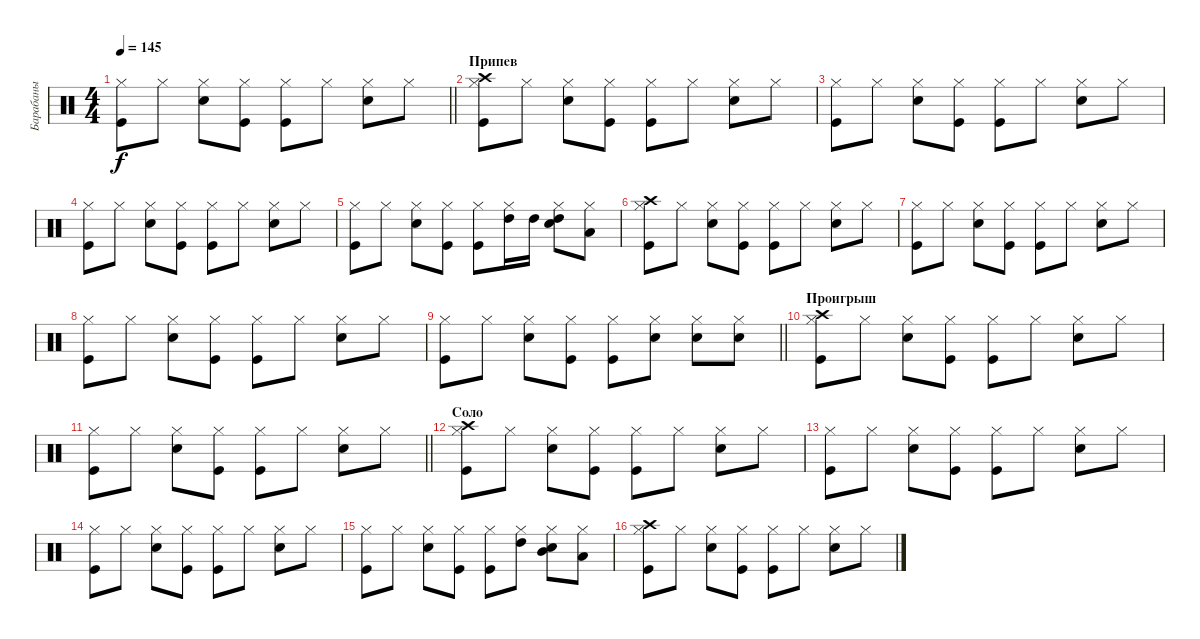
\track ("Барабаны" "Барабаны") {instrument percussion}
\staff {score}
\articulation defaults
\ts (4 4)
\tempo 145
\clef neutral
\barLineRight lightlight
\ks c
("Kick (hit)" "Hi-Hat (closed)").8{dy f} "Hi-Hat (closed)".8 ("Snare (hit) 2" "Hi-Hat (closed)").8 ("Kick (hit)" "Hi-Hat (closed)").8 ("Kick (hit)" "Hi-Hat (closed)").8 "Hi-Hat (closed)".8 ("Snare (hit) 2" "Hi-Hat (closed)").8 "Hi-Hat (closed)".8 |
\section ("" "Припев")
("Kick (hit)" "Hi-Hat (closed)" "Crash high (hit)").8 "Hi-Hat (closed)".8 ("Snare (hit) 2" "Hi-Hat (closed)").8 ("Kick (hit)" "Hi-Hat (closed)").8 ("Kick (hit)" "Hi-Hat (closed)").8 "Hi-Hat (closed)".8 ("Snare (hit) 2" "Hi-Hat (closed)").8 "Hi-Hat (closed)".8 |
("Kick (hit)" "Hi-Hat (closed)").8 "Hi-Hat (closed)".8 ("Snare (hit) 2" "Hi-Hat (closed)").8 ("Kick (hit)" "Hi-Hat (closed)").8 ("Kick (hit)" "Hi-Hat (closed)").8 "Hi-Hat (closed)".8 ("Snare (hit) 2" "Hi-Hat (closed)").8 "Hi-Hat (closed)".8 |
("Kick (hit)" "Hi-Hat (closed)").8 "Hi-Hat (closed)".8 ("Snare (hit) 2" "Hi-Hat (closed)").8 ("Kick (hit)" "Hi-Hat (closed)").8 ("Kick (hit)" "Hi-Hat (closed)").8 "Hi-Hat (closed)".8 ("Snare (hit) 2" "Hi-Hat (closed)").8 "Hi-Hat (closed)".8 |
("Kick (hit)" "Hi-Hat (closed)").8 "Hi-Hat (closed)".8 ("Snare (hit) 2" "Hi-Hat (closed)").8 ("Kick (hit)" "Hi-Hat (closed)").8 ("Kick (hit)" "Hi-Hat (closed)").8 ("Hi-Hat (closed)" "High Tom (hit)").16 "High Tom (hit)".16 ("Snare (hit) 2" "Hi-Hat (closed)" "High Tom (hit)").8 ("Hi-Hat (closed)" "Low Floor Tom (hit)").8 |
("Kick (hit)" "Hi-Hat (closed)" "Crash high (hit)").8 "Hi-Hat (closed)".8 ("Snare (hit) 2" "Hi-Hat (closed)").8 ("Kick (hit)" "Hi-Hat (closed)").8 ("Kick (hit)" "Hi-Hat (closed)").8 "Hi-Hat (closed)".8 ("Snare (hit) 2" "Hi-Hat (closed)").8 "Hi-Hat (closed)".8 |
("Kick (hit)" "Hi-Hat (closed)").8 "Hi-Hat (closed)".8 ("Snare (hit) 2" "Hi-Hat (closed)").8 ("Kick (hit)" "Hi-Hat (closed)").8 ("Kick (hit)" "Hi-Hat (closed)").8 "Hi-Hat (closed)".8 ("Snare (hit) 2" "Hi-Hat (closed)").8 "Hi-Hat (closed)".8 |
("Kick (hit)" "Hi-Hat (closed)").8 "Hi-Hat (closed)".8 ("Snare (hit) 2" "Hi-Hat (closed)").8 ("Kick (hit)" "Hi-Hat (closed)").8 ("Kick (hit)" "Hi-Hat (closed)").8 "Hi-Hat (closed)".8 ("Snare (hit) 2" "Hi-Hat (closed)").8 "Hi-Hat (closed)".8 |
\barLineRight lightlight
("Kick (hit)" "Hi-Hat (closed)").8 "Hi-Hat (closed)".8 ("Snare (hit) 2" "Hi-Hat (closed)").8 ("Kick (hit)" "Hi-Hat (closed)").8 ("Kick (hit)" "Hi-Hat (closed)").8 ("Snare (hit) 2" "Hi-Hat (closed)").8 ("Snare (hit) 2" "Hi-Hat (closed)").8 ("Snare (hit) 2" "Hi-Hat (closed)").8 |
\section ("" "Проигрыш")
("Kick (hit)" "Hi-Hat (closed)" "Crash high (hit)").8 "Hi-Hat (closed)".8 ("Snare (hit) 2" "Hi-Hat (closed)").8 ("Kick (hit)" "Hi-Hat (closed)").8 ("Kick (hit)" "Hi-Hat (closed)").8 "Hi-Hat (closed)".8 ("Snare (hit) 2" "Hi-Hat (closed)").8 "Hi-Hat (closed)".8 |
\barLineRight lightlight
("Kick (hit)" "Hi-Hat (closed)").8 "Hi-Hat (closed)".8 ("Snare (hit) 2" "Hi-Hat (closed)").8 ("Kick (hit)" "Hi-Hat (closed)").8 ("Kick (hit)" "Hi-Hat (closed)").8 "Hi-Hat (closed)".8 ("Snare (hit) 2" "Hi-Hat (closed)").8 "Hi-Hat (closed)".8 |
\section ("" "Соло")
("Kick (hit)" "Hi-Hat (closed)" "Crash high (hit)").8 "Hi-Hat (closed)".8 ("Snare (hit) 2" "Hi-Hat (closed)").8 ("Kick (hit)" "Hi-Hat (closed)").8 ("Kick (hit)" "Hi-Hat (closed)").8 "Hi-Hat (closed)".8 ("Snare (hit) 2" "Hi-Hat (closed)").8 "Hi-Hat (closed)".8 |
("Kick (hit)" "Hi-Hat (closed)").8 "Hi-Hat (closed)".8 ("Snare (hit) 2" "Hi-Hat (closed)").8 ("Kick (hit)" "Hi-Hat (closed)").8 ("Kick (hit)" "Hi-Hat (closed)").8 "Hi-Hat (closed)".8 ("Snare (hit) 2" "Hi-Hat (closed)").8 "Hi-Hat (closed)".8 |
("Kick (hit)" "Hi-Hat (closed)").8 "Hi-Hat (closed)".8 ("Snare (hit) 2" "Hi-Hat (closed)").8 ("Kick (hit)" "Hi-Hat (closed)").8 ("Kick (hit)" "Hi-Hat (closed)").8 "Hi-Hat (closed)".8 ("Snare (hit) 2" "Hi-Hat (closed)").8 "Hi-Hat (closed)".8 |
("Kick (hit)" "Hi-Hat (closed)").8 "Hi-Hat (closed)".8 ("Snare (hit) 2" "Hi-Hat (closed)").8 ("Kick (hit)" "Hi-Hat (closed)").8 ("Kick (hit)" "Hi-Hat (closed)").8 ("Hi-Hat (closed)" "High Tom (hit)").8 ("Snare (hit) 2" "Hi-Hat (closed)" "Mid Tom (hit)").8 ("Hi-Hat (closed)" "Low Tom (hit)").8 |
("Kick (hit)" "Hi-Hat (closed)" "Crash high (hit)").8 "Hi-Hat (closed)".8 ("Snare (hit) 2" "Hi-Hat (closed)").8 ("Kick (hit)" "Hi-Hat (closed)").8 ("Kick (hit)" "Hi-Hat (closed)").8 "Hi-Hat (closed)".8 ("Snare (hit) 2" "Hi-Hat (closed)").8 "Hi-Hat (closed)".8
